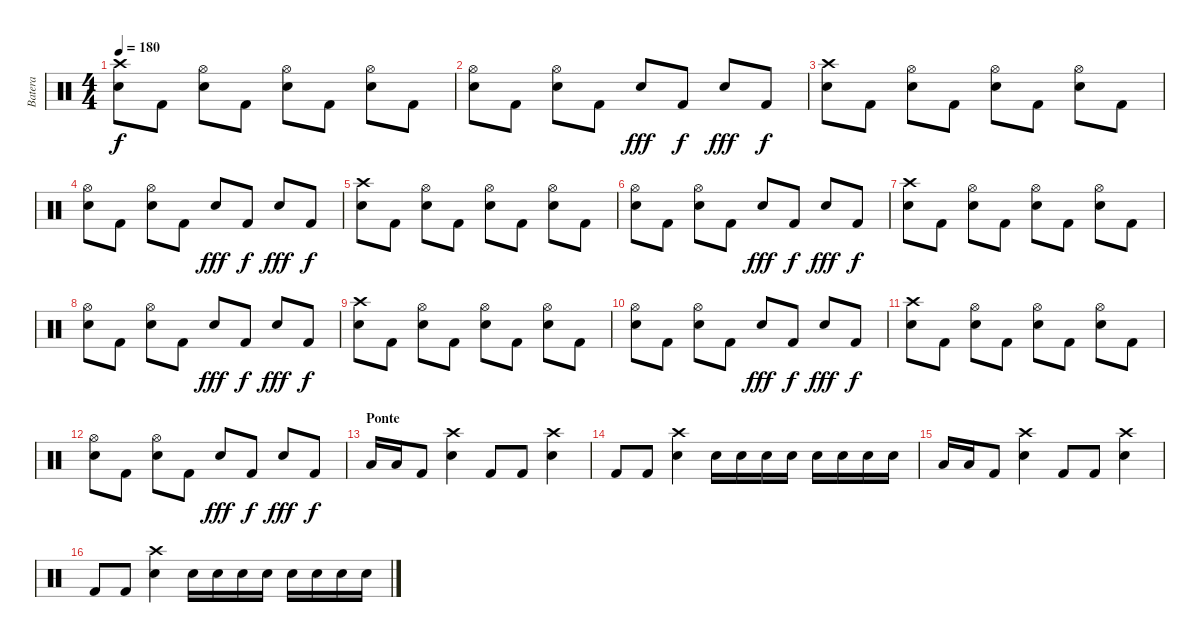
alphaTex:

\track ("Batera" "Batera") {instrument percussion}
\staff {score}
\articulation defaults
\ts (4 4)
\tempo 180
\clef neutral
\ks c
("Crash high (hit)" "Snare (hit) 2").8{dy f} "Kick (hit) 2".8 ("Hi-Hat (open)" "Snare (hit) 2").8 "Kick (hit) 2".8 ("Hi-Hat (open)" "Snare (hit) 2").8 "Kick (hit) 2".8 ("Hi-Hat (open)" "Snare (hit) 2").8 "Kick (hit) 2".8 |
("Hi-Hat (open)" "Snare (hit) 2").8 "Kick (hit) 2".8 ("Hi-Hat (open)" "Snare (hit) 2").8 "Kick (hit) 2".8 "Snare (hit) 2".8{dy fff} "Kick (hit) 2".8{dy f} "Snare (hit) 2".8{dy fff} "Kick (hit) 2".8{dy f} |
("Crash high (hit)" "Snare (hit) 2").8 "Kick (hit) 2".8 ("Hi-Hat (open)" "Snare (hit) 2").8 "Kick (hit) 2".8 ("Hi-Hat (open)" "Snare (hit) 2").8 "Kick (hit) 2".8 ("Hi-Hat (open)" "Snare (hit) 2").8 "Kick (hit) 2".8 |
("Hi-Hat (open)" "Snare (hit) 2").8 "Kick (hit) 2".8 ("Hi-Hat (open)" "Snare (hit) 2").8 "Kick (hit) 2".8 "Snare (hit) 2".8{dy fff} "Kick (hit) 2".8{dy f} "Snare (hit) 2".8{dy fff} "Kick (hit) 2".8{dy f} |
("Crash high (hit)" "Snare (hit) 2").8 "Kick (hit) 2".8 ("Hi-Hat (open)" "Snare (hit) 2").8 "Kick (hit) 2".8 ("Hi-Hat (open)" "Snare (hit) 2").8 "Kick (hit) 2".8 ("Hi-Hat (open)" "Snare (hit) 2").8 "Kick (hit) 2".8 |
("Hi-Hat (open)" "Snare (hit) 2").8 "Kick (hit) 2".8 ("Hi-Hat (open)" "Snare (hit) 2").8 "Kick (hit) 2".8 "Snare (hit) 2".8{dy fff} "Kick (hit) 2".8{dy f} "Snare (hit) 2".8{dy fff} "Kick (hit) 2".8{dy f} |
("Crash high (hit)" "Snare (hit) 2").8 "Kick (hit) 2".8 ("Hi-Hat (open)" "Snare (hit) 2").8 "Kick (hit) 2".8 ("Hi-Hat (open)" "Snare (hit) 2").8 "Kick (hit) 2".8 ("Hi-Hat (open)" "Snare (hit) 2").8 "Kick (hit) 2".8 |
("Hi-Hat (open)" "Snare (hit) 2").8 "Kick (hit) 2".8 ("Hi-Hat (open)" "Snare (hit) 2").8 "Kick (hit) 2".8 "Snare (hit) 2".8{dy fff} "Kick (hit) 2".8{dy f} "Snare (hit) 2".8{dy fff} "Kick (hit) 2".8{dy f} |
("Crash high (hit)" "Snare (hit) 2").8 "Kick (hit) 2".8 ("Hi-Hat (open)" "Snare (hit) 2").8 "Kick (hit) 2".8 ("Hi-Hat (open)" "Snare (hit) 2").8 "Kick (hit) 2".8 ("Hi-Hat (open)" "Snare (hit) 2").8 "Kick (hit) 2".8 |
("Hi-Hat (open)" "Snare (hit) 2").8 "Kick (hit) 2".8 ("Hi-Hat (open)" "Snare (hit) 2").8 "Kick (hit) 2".8 "Snare (hit) 2".8{dy fff} "Kick (hit) 2".8{dy f} "Snare (hit) 2".8{dy fff} "Kick (hit) 2".8{dy f} |
("Crash high (hit)" "Snare (hit) 2").8 "Kick (hit) 2".8 ("Hi-Hat (open)" "Snare (hit) 2").8 "Kick (hit) 2".8 ("Hi-Hat (open)" "Snare (hit) 2").8 "Kick (hit) 2".8 ("Hi-Hat (open)" "Snare (hit) 2").8 "Kick (hit) 2".8 |
("Hi-Hat (open)" "Snare (hit) 2").8 "Kick (hit) 2".8 ("Hi-Hat (open)" "Snare (hit) 2").8 "Kick (hit) 2".8 "Snare (hit) 2".8{dy fff} "Kick (hit) 2".8{dy f} "Snare (hit) 2".8{dy fff} "Kick (hit) 2".8{dy f} |
\section ("" "Ponte")
"Low Tom (hit)".16 "Low Tom (hit)".16 "Kick (hit) 2".8 ("Crash high (hit)" "Snare (hit) 2").4 "Kick (hit) 2".8 "Kick (hit) 2".8 ("Crash high (hit)" "Snare (hit) 2").4 |
"Kick (hit) 2".8 "Kick (hit) 2".8 ("Crash high (hit)" "Snare (hit) 2").4 "Snare (hit) 2".16 "Snare (hit) 2".16 "Snare (hit) 2".16 "Snare (hit) 2".16 "Snare (hit) 2".16 "Snare (hit) 2".16 "Snare (hit) 2".16 "Snare (hit) 2".16 |
"Low Tom (hit)".16 "Low Tom (hit)".16 "Kick (hit) 2".8 ("Crash high (hit)" "Snare (hit) 2").4 "Kick (hit) 2".8 "Kick (hit) 2".8 ("Crash high (hit)" "Snare (hit) 2").4 |
"Kick (hit) 2".8 "Kick (hit) 2".8 ("Crash high (hit)" "Snare (hit) 2").4 "Snare (hit) 2".16 "Snare (hit) 2".16 "Snare (hit) 2".16 "Snare (hit) 2".16 "Snare (hit) 2".16 "Snare (hit) 2".16 "Snare (hit) 2".16 "Snare (hit) 2".16
